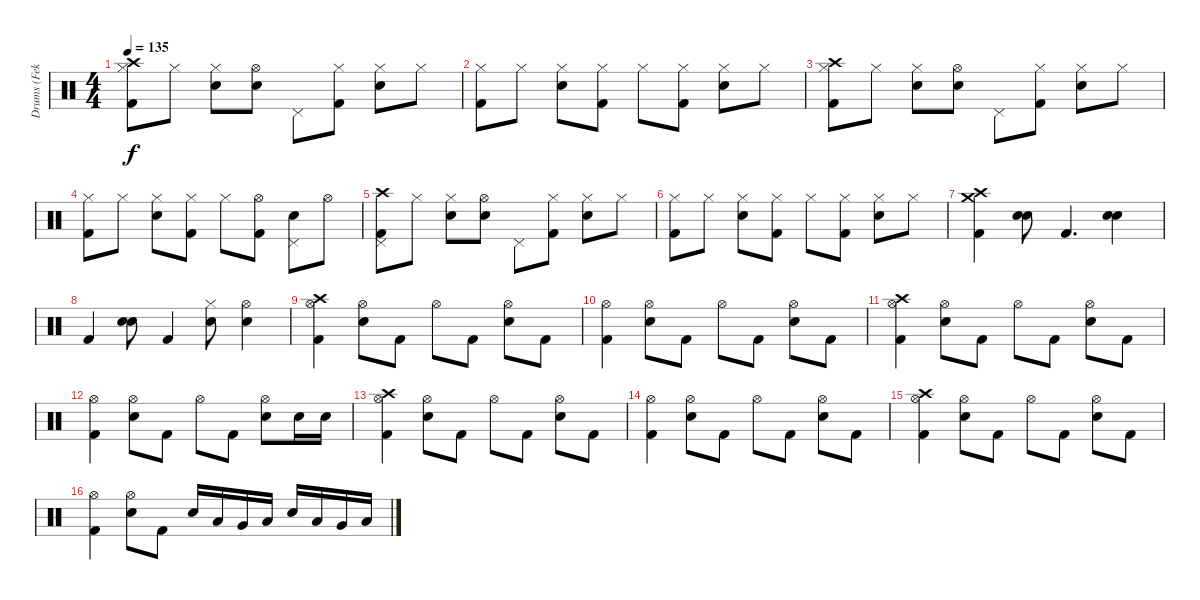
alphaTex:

\track ("Drums (Feka)" "Drums (Fek") {instrument percussion}
\staff {score}
\articulation defaults
\ts (4 4)
\tempo 135
\clef neutral
\ks c
("Crash high (hit)" "Hi-Hat (closed)" "Kick (hit) 2").8{dy f} "Hi-Hat (closed)".8 ("Hi-Hat (closed)" "Snare (hit) 2").8 ("Hi-Hat (open)" "Snare (hit) 2").8 "Pedal Hi-Hat (hit)".8 ("Hi-Hat (closed)" "Kick (hit) 2").8 ("Hi-Hat (closed)" "Snare (hit) 2").8 "Hi-Hat (closed)".8 |
("Hi-Hat (closed)" "Kick (hit) 2").8 "Hi-Hat (closed)".8 ("Hi-Hat (closed)" "Snare (hit) 2").8 ("Hi-Hat (closed)" "Kick (hit) 2").8 "Hi-Hat (closed)".8 ("Hi-Hat (closed)" "Kick (hit) 2").8 ("Hi-Hat (closed)" "Snare (hit) 2").8 "Hi-Hat (closed)".8 |
("Crash high (hit)" "Hi-Hat (closed)" "Kick (hit) 2").8 "Hi-Hat (closed)".8 ("Hi-Hat (closed)" "Snare (hit) 2").8 ("Hi-Hat (open)" "Snare (hit) 2").8 "Pedal Hi-Hat (hit)".8 ("Hi-Hat (closed)" "Kick (hit) 2").8 ("Hi-Hat (closed)" "Snare (hit) 2").8 "Hi-Hat (closed)".8 |
("Hi-Hat (closed)" "Kick (hit) 2").8 "Hi-Hat (closed)".8 ("Hi-Hat (closed)" "Snare (hit) 2").8 ("Hi-Hat (closed)" "Kick (hit) 2").8 "Hi-Hat (closed)".8 ("Hi-Hat (open)" "Kick (hit) 2").8 ("Pedal Hi-Hat (hit)" "Snare (hit) 2").8 "Hi-Hat (open)".8 |
("Crash high (hit)" "Pedal Hi-Hat (hit)" "Kick (hit) 2").8 "Hi-Hat (closed)".8 ("Hi-Hat (closed)" "Snare (hit) 2").8 ("Hi-Hat (open)" "Snare (hit) 2").8 "Pedal Hi-Hat (hit)".8 ("Hi-Hat (closed)" "Kick (hit) 2").8 ("Hi-Hat (closed)" "Snare (hit) 2").8 "Hi-Hat (closed)".8 |
("Hi-Hat (closed)" "Kick (hit) 2").8 "Hi-Hat (closed)".8 ("Hi-Hat (closed)" "Snare (hit) 2").8 ("Hi-Hat (closed)" "Kick (hit) 2").8 "Hi-Hat (closed)".8 ("Hi-Hat (closed)" "Kick (hit) 2").8 ("Hi-Hat (closed)" "Snare (hit) 2").8 "Hi-Hat (closed)".8 |
("Crash high (hit)" "Crash medium (hit)" "Kick (hit) 2").4 ("Snare (hit) 2" "Snare (hit) 2").8 "Kick (hit) 2".4{d} ("Snare (hit) 2" "Snare (hit) 2").4 |
"Kick (hit) 2".4 ("Snare (hit) 2" "Snare (hit) 2").8 "Kick (hit) 2".4 ("Hi-Hat (closed)" "Snare (hit) 2").8 ("Hi-Hat (open)" "Snare (hit) 2").4 |
("Crash high (hit)" "Hi-Hat (open)" "Kick (hit) 2").4 ("Hi-Hat (open)" "Snare (hit) 2").8 "Kick (hit) 2".8 "Hi-Hat (open)".8 "Kick (hit) 2".8 ("Hi-Hat (open)" "Snare (hit) 2").8 "Kick (hit) 2".8 |
("Hi-Hat (open)" "Kick (hit) 2").4 ("Hi-Hat (open)" "Snare (hit) 2").8 "Kick (hit) 2".8 "Hi-Hat (open)".8 "Kick (hit) 2".8 ("Hi-Hat (open)" "Snare (hit) 2").8 "Kick (hit) 2".8 |
("Crash high (hit)" "Hi-Hat (open)" "Kick (hit) 2").4 ("Hi-Hat (open)" "Snare (hit) 2").8 "Kick (hit) 2".8 "Hi-Hat (open)".8 "Kick (hit) 2".8 ("Hi-Hat (open)" "Snare (hit) 2").8 "Kick (hit) 2".8 |
("Hi-Hat (open)" "Kick (hit) 2").4 ("Hi-Hat (open)" "Snare (hit) 2").8 "Kick (hit) 2".8 "Hi-Hat (open)".8 "Kick (hit) 2".8 ("Hi-Hat (open)" "Snare (hit) 2").8 "Snare (hit) 2".16 "Snare (hit) 2".16 |
("Crash high (hit)" "Hi-Hat (open)" "Kick (hit) 2").4 ("Hi-Hat (open)" "Snare (hit) 2").8 "Kick (hit) 2".8 "Hi-Hat (open)".8 "Kick (hit) 2".8 ("Hi-Hat (open)" "Snare (hit) 2").8 "Kick (hit) 2".8 |
("Hi-Hat (open)" "Kick (hit) 2").4 ("Hi-Hat (open)" "Snare (hit) 2").8 "Kick (hit) 2".8 "Hi-Hat (open)".8 "Kick (hit) 2".8 ("Hi-Hat (open)" "Snare (hit) 2").8 "Kick (hit) 2".8 |
("Crash high (hit)" "Hi-Hat (open)" "Kick (hit) 2").4 ("Hi-Hat (open)" "Snare (hit) 2").8 "Kick (hit) 2".8 "Hi-Hat (open)".8 "Kick (hit) 2".8 ("Hi-Hat (open)" "Snare (hit) 2").8 "Kick (hit) 2".8 |
("Hi-Hat (open)" "Kick (hit) 2").4 ("Hi-Hat (open)" "Snare (hit) 2").8 "Kick (hit) 2".8 "Snare (hit) 2".16 "Low Tom (hit)".16 "Very Low Tom (hit)".16 "Low Floor Tom (hit)".16 "Snare (hit) 2".16 "Low Tom (hit)".16 "Very Low Tom (hit)".16 "Low Floor Tom (hit)".16
